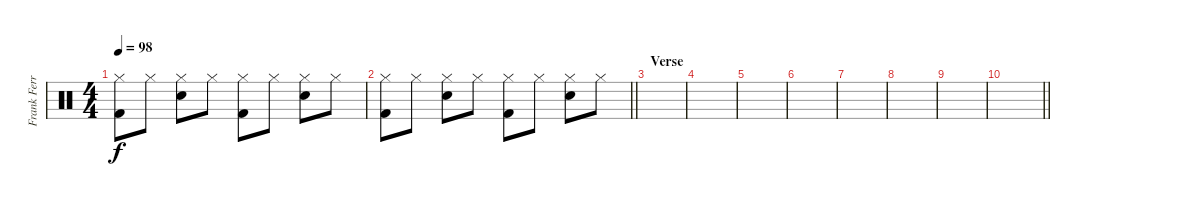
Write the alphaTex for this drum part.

\track ("Frank Ferrer" "Frank Ferr") {instrument percussion}
\staff {score}
\articulation defaults
\ts (4 4)
\tempo 98
\clef neutral
\ks c
("Hi-Hat (closed)" "Kick (hit) 2").8{dy f} "Hi-Hat (closed)".8 ("Hi-Hat (closed)" "Snare (hit) 2").8 "Hi-Hat (closed)".8 ("Hi-Hat (closed)" "Kick (hit) 2").8 "Hi-Hat (closed)".8 ("Hi-Hat (closed)" "Snare (hit) 2").8 "Hi-Hat (closed)".8 |
\barLineRight lightlight
("Hi-Hat (closed)" "Kick (hit) 2").8 "Hi-Hat (closed)".8 ("Hi-Hat (closed)" "Snare (hit) 2").8 "Hi-Hat (closed)".8 ("Hi-Hat (closed)" "Kick (hit) 2").8 "Hi-Hat (closed)".8 ("Hi-Hat (closed)" "Snare (hit) 2").8 "Hi-Hat (closed)".8 |
\section ("" "Verse")
|
|
|
|
|
|
|
\barLineRight lightlight
